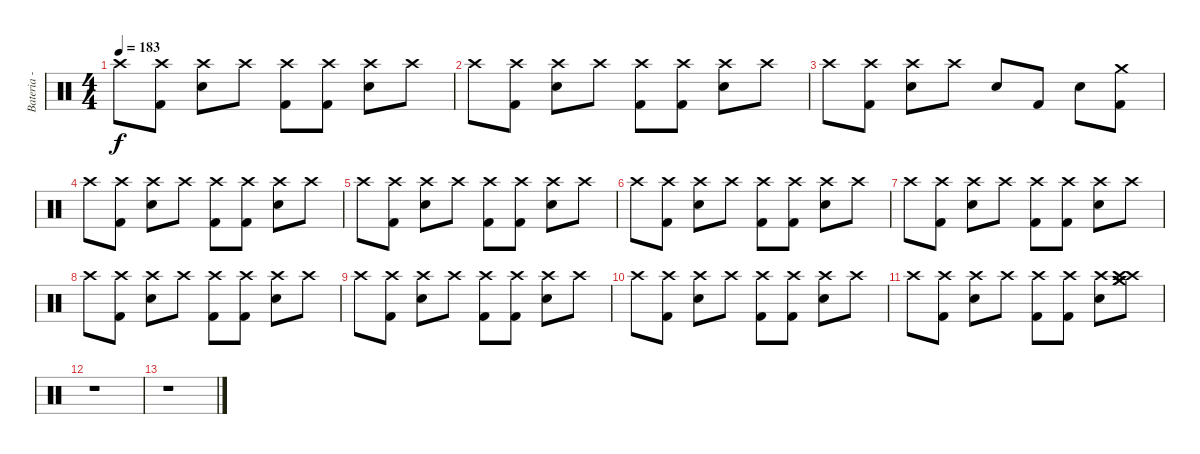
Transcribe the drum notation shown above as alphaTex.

\track ("Bateria - Larzon " "Bateria - ") {instrument percussion}
\staff {score}
\articulation defaults
\ts (4 4)
\tempo 183
\clef neutral
\ks c "Crash high (hit)".8{dy f}
("Kick (hit) 2" "Crash high (hit)").8 ("Snare (hit) 2" "Crash high (hit)").8 "Crash high (hit)".8 ("Kick (hit) 2" "Crash high (hit)").8 ("Kick (hit) 2" "Crash high (hit)").8 ("Snare (hit) 2" "Crash high (hit)").8 "Crash high (hit)".8 |
"Crash high (hit)".8 ("Kick (hit) 2" "Crash high (hit)").8 ("Snare (hit) 2" "Crash high (hit)").8 "Crash high (hit)".8 ("Kick (hit) 2" "Crash high (hit)").8 ("Kick (hit) 2" "Crash high (hit)").8 ("Snare (hit) 2" "Crash high (hit)").8 "Crash high (hit)".8 |
"Crash high (hit)".8 ("Kick (hit) 2" "Crash high (hit)").8 ("Snare (hit) 2" "Crash high (hit)").8 "Crash high (hit)".8 "Snare (hit) 2".8 "Kick (hit) 2".8 "Snare (hit) 2".8 ("Kick (hit) 2" "Crash medium (hit)").8 |
"Crash high (hit)".8 ("Kick (hit) 2" "Crash high (hit)").8 ("Snare (hit) 2" "Crash high (hit)").8 "Crash high (hit)".8 ("Kick (hit) 2" "Crash high (hit)").8 ("Kick (hit) 2" "Crash high (hit)").8 ("Snare (hit) 2" "Crash high (hit)").8 "Crash high (hit)".8 |
"Crash high (hit)".8 ("Kick (hit) 2" "Crash high (hit)").8 ("Snare (hit) 2" "Crash high (hit)").8 "Crash high (hit)".8 ("Kick (hit) 2" "Crash high (hit)").8 ("Kick (hit) 2" "Crash high (hit)").8 ("Snare (hit) 2" "Crash high (hit)").8 "Crash high (hit)".8 |
"Crash high (hit)".8 ("Kick (hit) 2" "Crash high (hit)").8 ("Snare (hit) 2" "Crash high (hit)").8 "Crash high (hit)".8 ("Kick (hit) 2" "Crash high (hit)").8 ("Kick (hit) 2" "Crash high (hit)").8 ("Snare (hit) 2" "Crash high (hit)").8 "Crash high (hit)".8 |
"Crash high (hit)".8 ("Kick (hit) 2" "Crash high (hit)").8 ("Snare (hit) 2" "Crash high (hit)").8 "Crash high (hit)".8 ("Kick (hit) 2" "Crash high (hit)").8 ("Kick (hit) 2" "Crash high (hit)").8 ("Snare (hit) 2" "Crash high (hit)").8 "Crash high (hit)".8 |
"Crash high (hit)".8 ("Kick (hit) 2" "Crash high (hit)").8 ("Snare (hit) 2" "Crash high (hit)").8 "Crash high (hit)".8 ("Kick (hit) 2" "Crash high (hit)").8 ("Kick (hit) 2" "Crash high (hit)").8 ("Snare (hit) 2" "Crash high (hit)").8 "Crash high (hit)".8 |
"Crash high (hit)".8 ("Kick (hit) 2" "Crash high (hit)").8 ("Snare (hit) 2" "Crash high (hit)").8 "Crash high (hit)".8 ("Kick (hit) 2" "Crash high (hit)").8 ("Kick (hit) 2" "Crash high (hit)").8 ("Snare (hit) 2" "Crash high (hit)").8 "Crash high (hit)".8 |
"Crash high (hit)".8 ("Kick (hit) 2" "Crash high (hit)").8 ("Snare (hit) 2" "Crash high (hit)").8 "Crash high (hit)".8 ("Kick (hit) 2" "Crash high (hit)").8 ("Kick (hit) 2" "Crash high (hit)").8 ("Snare (hit) 2" "Crash high (hit)").8 "Crash high (hit)".8 |
"Crash high (hit)".8 ("Kick (hit) 2" "Crash high (hit)").8 ("Snare (hit) 2" "Crash high (hit)").8 "Crash high (hit)".8 ("Kick (hit) 2" "Crash high (hit)").8 ("Kick (hit) 2" "Crash high (hit)").8 ("Snare (hit) 2" "Crash high (hit)").8 ("Crash medium (hit)" "Crash medium (hit)" "Crash high (hit)" "Crash high (hit)").8 |
r.1 |
r.1
